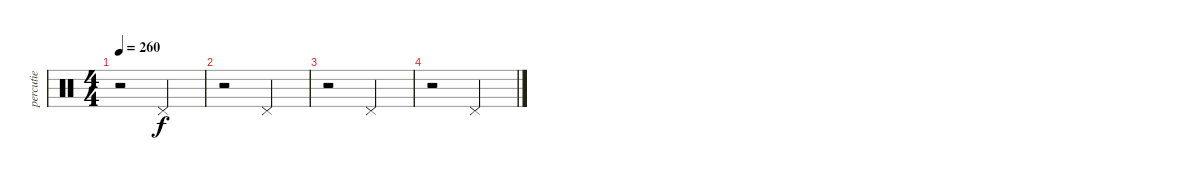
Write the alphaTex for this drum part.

\track ("percutie" "percutie") {instrument percussion}
\staff {score}
\articulation defaults
\ts (4 4)
\tempo 260
\clef neutral
\ks c
r.2{dy f} "Pedal Hi-Hat (hit)".2 |
r.2 "Pedal Hi-Hat (hit)".2 |
r.2 "Pedal Hi-Hat (hit)".2 |
r.2 "Pedal Hi-Hat (hit)".2
